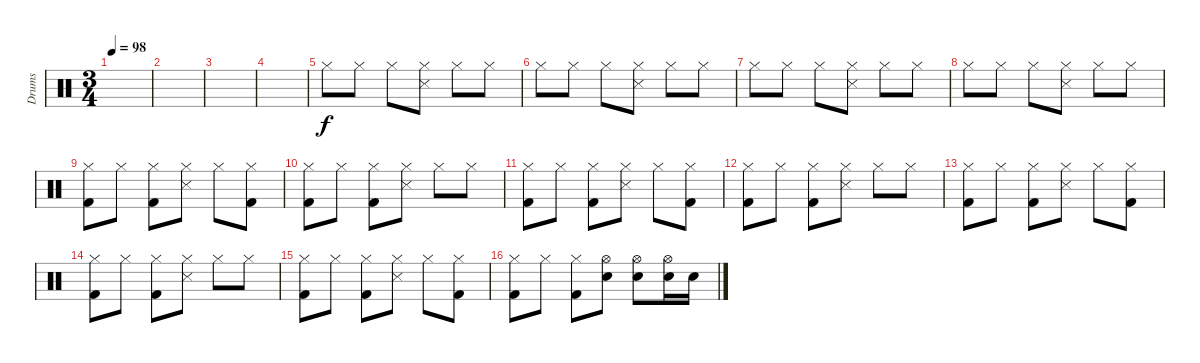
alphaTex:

\track ("Drums" "Drums") {instrument percussion}
\staff {score}
\articulation defaults
\ts (3 4)
\tempo 98
\clef neutral
\ks c
|
|
|
|
"Hi-Hat (closed)".8 "Hi-Hat (closed)".8 "Hi-Hat (closed)".8 ("Hi-Hat (closed)" "Snare (side stick) 3").8 "Hi-Hat (closed)".8 "Hi-Hat (closed)".8 |
"Hi-Hat (closed)".8 "Hi-Hat (closed)".8 "Hi-Hat (closed)".8 ("Hi-Hat (closed)" "Snare (side stick) 3").8 "Hi-Hat (closed)".8 "Hi-Hat (closed)".8 |
"Hi-Hat (closed)".8 "Hi-Hat (closed)".8 "Hi-Hat (closed)".8 ("Hi-Hat (closed)" "Snare (side stick) 3").8 "Hi-Hat (closed)".8 "Hi-Hat (closed)".8 |
"Hi-Hat (closed)".8 "Hi-Hat (closed)".8 "Hi-Hat (closed)".8 ("Hi-Hat (closed)" "Snare (side stick) 3").8 "Hi-Hat (closed)".8 "Hi-Hat (closed)".8 |
("Hi-Hat (closed)" "Kick (hit) 2").8 "Hi-Hat (closed)".8 ("Hi-Hat (closed)" "Kick (hit) 2").8 ("Hi-Hat (closed)" "Snare (side stick) 3").8 "Hi-Hat (closed)".8 ("Hi-Hat (closed)" "Kick (hit) 2").8 |
("Hi-Hat (closed)" "Kick (hit) 2").8 "Hi-Hat (closed)".8 ("Hi-Hat (closed)" "Kick (hit) 2").8 ("Hi-Hat (closed)" "Snare (side stick) 3").8 "Hi-Hat (closed)".8 "Hi-Hat (closed)".8 |
("Hi-Hat (closed)" "Kick (hit) 2").8 "Hi-Hat (closed)".8 ("Hi-Hat (closed)" "Kick (hit) 2").8 ("Hi-Hat (closed)" "Snare (side stick) 3").8 "Hi-Hat (closed)".8 ("Hi-Hat (closed)" "Kick (hit) 2").8 |
("Hi-Hat (closed)" "Kick (hit) 2").8 "Hi-Hat (closed)".8 ("Hi-Hat (closed)" "Kick (hit) 2").8 ("Hi-Hat (closed)" "Snare (side stick) 3").8 "Hi-Hat (closed)".8 "Hi-Hat (closed)".8 |
("Hi-Hat (closed)" "Kick (hit) 2").8 "Hi-Hat (closed)".8 ("Hi-Hat (closed)" "Kick (hit) 2").8 ("Hi-Hat (closed)" "Snare (side stick) 3").8 "Hi-Hat (closed)".8 ("Hi-Hat (closed)" "Kick (hit) 2").8 |
("Hi-Hat (closed)" "Kick (hit) 2").8 "Hi-Hat (closed)".8 ("Hi-Hat (closed)" "Kick (hit) 2").8 ("Hi-Hat (closed)" "Snare (side stick) 3").8 "Hi-Hat (closed)".8 "Hi-Hat (closed)".8 |
("Hi-Hat (closed)" "Kick (hit) 2").8 "Hi-Hat (closed)".8 ("Hi-Hat (closed)" "Kick (hit) 2").8 ("Hi-Hat (closed)" "Snare (side stick) 3").8 "Hi-Hat (closed)".8 ("Hi-Hat (closed)" "Kick (hit) 2").8 |
("Hi-Hat (closed)" "Kick (hit) 2").8 "Hi-Hat (closed)".8 ("Hi-Hat (closed)" "Kick (hit) 2").8 ("Hi-Hat (open)" "Snare (hit) 2").8 ("Hi-Hat (open)" "Snare (hit) 2").8 ("Hi-Hat (open)" "Snare (hit) 2").16 "Snare (hit) 2".16
